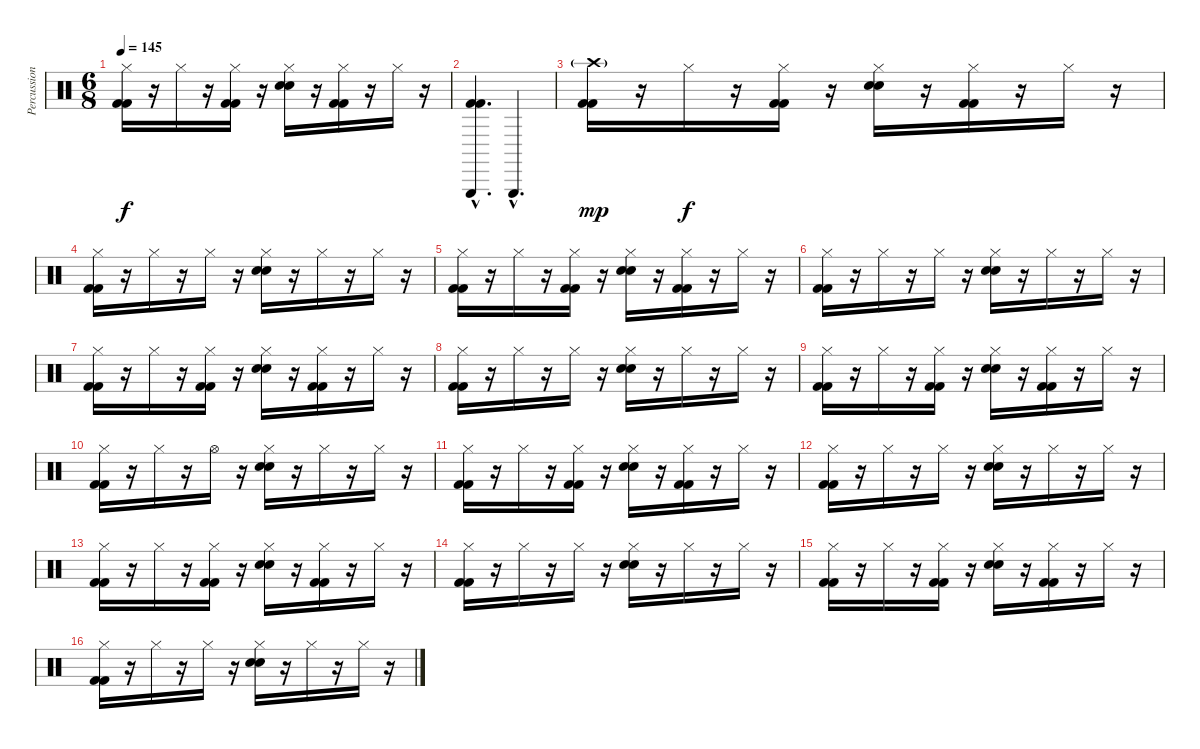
\track ("Percussion" "Percussion") {instrument percussion}
\staff {score}
\articulation defaults
\ts (6 8)
\tempo 145
\clef neutral
\ks c
("Hi-Hat (closed)" "Kick (hit) 2" "Kick (hit) 2").16{dy f} r.16 "Hi-Hat (closed)".16 r.16 ("Hi-Hat (closed)" "Kick (hit) 2" "Kick (hit) 2").16 r.16 ("Hi-Hat (closed)" "Electric Snare (hit)" "Electric Snare (hit)").16 r.16 ("Hi-Hat (closed)" "Kick (hit) 2" "Kick (hit) 2").16 r.16 "Hi-Hat (closed)".16 r.16 |
("Triangle (hit)"{hac} "Kick (hit) 2"{hac} "Kick (hit) 2"{hac}).4{d} "Triangle (hit)"{hac}.4{d} |
("Crash high (hit)"{g} "Kick (hit) 2" "Kick (hit) 2").16{dy mp} r.16 "Hi-Hat (closed)".16{dy f} r.16 ("Hi-Hat (closed)" "Kick (hit) 2" "Kick (hit) 2").16 r.16 ("Hi-Hat (closed)" "Electric Snare (hit)" "Electric Snare (hit)").16 r.16 ("Hi-Hat (closed)" "Kick (hit) 2" "Kick (hit) 2").16 r.16 "Hi-Hat (closed)".16 r.16 |
("Hi-Hat (closed)" "Kick (hit) 2" "Kick (hit) 2").16 r.16 "Hi-Hat (closed)".16 r.16 "Hi-Hat (closed)".16 r.16 ("Hi-Hat (closed)" "Electric Snare (hit)" "Electric Snare (hit)").16 r.16 "Hi-Hat (closed)".16 r.16 "Hi-Hat (closed)".16 r.16 |
("Hi-Hat (closed)" "Kick (hit) 2" "Kick (hit) 2").16 r.16 "Hi-Hat (closed)".16 r.16 ("Hi-Hat (closed)" "Kick (hit) 2" "Kick (hit) 2").16 r.16 ("Hi-Hat (closed)" "Electric Snare (hit)" "Electric Snare (hit)").16 r.16 ("Hi-Hat (closed)" "Kick (hit) 2" "Kick (hit) 2").16 r.16 "Hi-Hat (closed)".16 r.16 |
("Hi-Hat (closed)" "Kick (hit) 2" "Kick (hit) 2").16 r.16 "Hi-Hat (closed)".16 r.16 "Hi-Hat (closed)".16 r.16 ("Hi-Hat (closed)" "Electric Snare (hit)" "Electric Snare (hit)").16 r.16 "Hi-Hat (closed)".16 r.16 "Hi-Hat (closed)".16 r.16 |
("Hi-Hat (closed)" "Kick (hit) 2" "Kick (hit) 2").16 r.16 "Hi-Hat (closed)".16 r.16 ("Hi-Hat (closed)" "Kick (hit) 2" "Kick (hit) 2").16 r.16 ("Hi-Hat (closed)" "Electric Snare (hit)" "Electric Snare (hit)").16 r.16 ("Hi-Hat (closed)" "Kick (hit) 2" "Kick (hit) 2").16 r.16 "Hi-Hat (closed)".16 r.16 |
("Hi-Hat (closed)" "Kick (hit) 2" "Kick (hit) 2").16 r.16 "Hi-Hat (closed)".16 r.16 "Hi-Hat (closed)".16 r.16 ("Hi-Hat (closed)" "Electric Snare (hit)" "Electric Snare (hit)").16 r.16 "Hi-Hat (closed)".16 r.16 "Hi-Hat (closed)".16 r.16 |
("Hi-Hat (closed)" "Kick (hit) 2" "Kick (hit) 2").16 r.16 "Hi-Hat (closed)".16 r.16 ("Hi-Hat (closed)" "Kick (hit) 2" "Kick (hit) 2").16 r.16 ("Hi-Hat (closed)" "Electric Snare (hit)" "Electric Snare (hit)").16 r.16 ("Hi-Hat (closed)" "Kick (hit) 2" "Kick (hit) 2").16 r.16 "Hi-Hat (closed)".16 r.16 |
("Hi-Hat (closed)" "Kick (hit) 2" "Kick (hit) 2").16 r.16 "Hi-Hat (closed)".16 r.16 "Hi-Hat (open)".16 r.16 ("Hi-Hat (closed)" "Electric Snare (hit)" "Electric Snare (hit)").16 r.16 "Hi-Hat (closed)".16 r.16 "Hi-Hat (closed)".16 r.16 |
("Hi-Hat (closed)" "Kick (hit) 2" "Kick (hit) 2").16 r.16 "Hi-Hat (closed)".16 r.16 ("Hi-Hat (closed)" "Kick (hit) 2" "Kick (hit) 2").16 r.16 ("Hi-Hat (closed)" "Electric Snare (hit)" "Electric Snare (hit)").16 r.16 ("Hi-Hat (closed)" "Kick (hit) 2" "Kick (hit) 2").16 r.16 "Hi-Hat (closed)".16 r.16 |
("Hi-Hat (closed)" "Kick (hit) 2" "Kick (hit) 2").16 r.16 "Hi-Hat (closed)".16 r.16 "Hi-Hat (closed)".16 r.16 ("Hi-Hat (closed)" "Electric Snare (hit)" "Electric Snare (hit)").16 r.16 "Hi-Hat (closed)".16 r.16 "Hi-Hat (closed)".16 r.16 |
("Hi-Hat (closed)" "Kick (hit) 2" "Kick (hit) 2").16 r.16 "Hi-Hat (closed)".16 r.16 ("Hi-Hat (closed)" "Kick (hit) 2" "Kick (hit) 2").16 r.16 ("Hi-Hat (closed)" "Electric Snare (hit)" "Electric Snare (hit)").16 r.16 ("Hi-Hat (closed)" "Kick (hit) 2" "Kick (hit) 2").16 r.16 "Hi-Hat (closed)".16 r.16 |
("Hi-Hat (closed)" "Kick (hit) 2" "Kick (hit) 2").16 r.16 "Hi-Hat (closed)".16 r.16 "Hi-Hat (closed)".16 r.16 ("Hi-Hat (closed)" "Electric Snare (hit)" "Electric Snare (hit)").16 r.16 "Hi-Hat (closed)".16 r.16 "Hi-Hat (closed)".16 r.16 |
("Hi-Hat (closed)" "Kick (hit) 2" "Kick (hit) 2").16 r.16 "Hi-Hat (closed)".16 r.16 ("Hi-Hat (closed)" "Kick (hit) 2" "Kick (hit) 2").16 r.16 ("Hi-Hat (closed)" "Electric Snare (hit)" "Electric Snare (hit)").16 r.16 ("Hi-Hat (closed)" "Kick (hit) 2" "Kick (hit) 2").16 r.16 "Hi-Hat (closed)".16 r.16 |
("Hi-Hat (closed)" "Kick (hit) 2" "Kick (hit) 2").16 r.16 "Hi-Hat (closed)".16 r.16 "Hi-Hat (closed)".16 r.16 ("Hi-Hat (closed)" "Electric Snare (hit)" "Electric Snare (hit)").16 r.16 "Hi-Hat (closed)".16 r.16 "Hi-Hat (closed)".16 r.16
